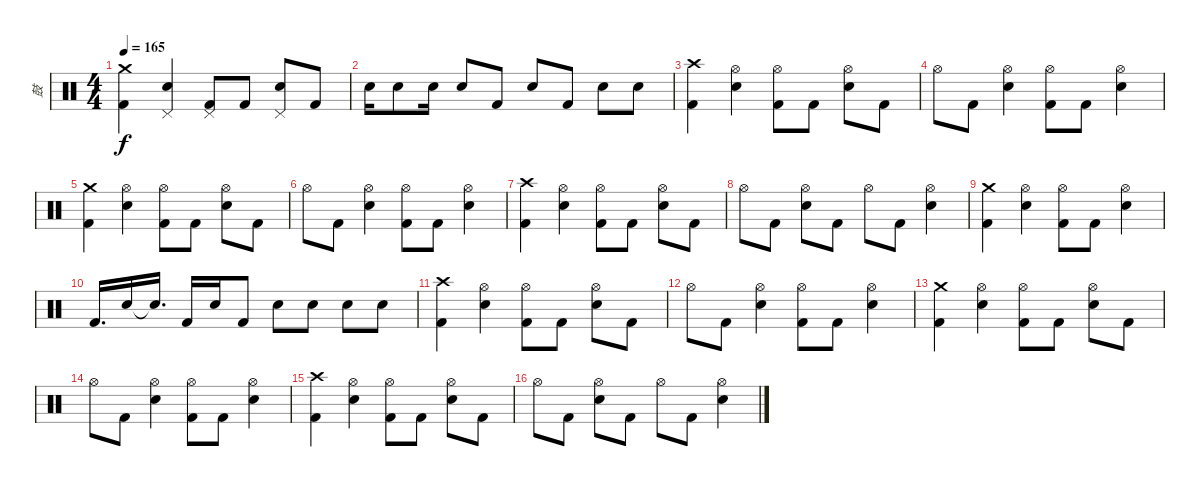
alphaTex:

\track ("鼓" "鼓") {instrument percussion}
\staff {score}
\articulation defaults
\ts (4 4)
\tempo 165
\clef neutral
\ks c
("Crash medium (hit)" "Kick (hit) 2").4{dy f} ("Pedal Hi-Hat (hit)" "Snare (hit) 2").4 ("Pedal Hi-Hat (hit)" "Kick (hit) 2").8 "Kick (hit) 2".8 ("Pedal Hi-Hat (hit)" "Snare (hit) 2").8 "Kick (hit) 2".8 |
"Snare (hit) 2".16 "Snare (hit) 2".8 "Snare (hit) 2".16 "Snare (hit) 2".8 "Kick (hit) 2".8 "Snare (hit) 2".8 "Kick (hit) 2".8 "Snare (hit) 2".8 "Snare (hit) 2".8 |
("Crash high (hit)" "Kick (hit) 2").4 ("Hi-Hat (open)" "Snare (hit) 2").4 ("Hi-Hat (open)" "Kick (hit) 2").8 "Kick (hit) 2".8 ("Hi-Hat (open)" "Snare (hit) 2").8 "Kick (hit) 2".8 |
"Hi-Hat (open)".8 "Kick (hit) 2".8 ("Hi-Hat (open)" "Snare (hit) 2").4 ("Hi-Hat (open)" "Kick (hit) 2").8 "Kick (hit) 2".8 ("Hi-Hat (open)" "Snare (hit) 2").4 |
("Crash medium (hit)" "Kick (hit) 2").4 ("Hi-Hat (open)" "Snare (hit) 2").4 ("Hi-Hat (open)" "Kick (hit) 2").8 "Kick (hit) 2".8 ("Hi-Hat (open)" "Snare (hit) 2").8 "Kick (hit) 2".8 |
"Hi-Hat (open)".8 "Kick (hit) 2".8 ("Hi-Hat (open)" "Snare (hit) 2").4 ("Hi-Hat (open)" "Kick (hit) 2").8 "Kick (hit) 2".8 ("Hi-Hat (open)" "Snare (hit) 2").4 |
("Crash high (hit)" "Kick (hit) 2").4 ("Hi-Hat (open)" "Snare (hit) 2").4 ("Hi-Hat (open)" "Kick (hit) 2").8 "Kick (hit) 2".8 ("Hi-Hat (open)" "Snare (hit) 2").8 "Kick (hit) 2".8 |
"Hi-Hat (open)".8 "Kick (hit) 2".8 ("Hi-Hat (open)" "Snare (hit) 2").8 "Kick (hit) 2".8 "Hi-Hat (open)".8 "Kick (hit) 2".8 ("Hi-Hat (open)" "Snare (hit) 2").4 |
("Crash medium (hit)" "Kick (hit) 2").4 ("Hi-Hat (open)" "Snare (hit) 2").4 ("Hi-Hat (open)" "Kick (hit) 2").8 "Kick (hit) 2".8 ("Hi-Hat (open)" "Snare (hit) 2").4 |
"Kick (hit) 2".16{d} "Snare (hit) 2".16 "Snare (hit) 2"{t}.16{d} "Kick (hit) 2".16 "Snare (hit) 2".16 "Kick (hit) 2".8 "Snare (hit) 2".8 "Snare (hit) 2".8 "Snare (hit) 2".8 "Snare (hit) 2".8 |
("Crash high (hit)" "Kick (hit) 2").4 ("Hi-Hat (open)" "Snare (hit) 2").4 ("Hi-Hat (open)" "Kick (hit) 2").8 "Kick (hit) 2".8 ("Hi-Hat (open)" "Snare (hit) 2").8 "Kick (hit) 2".8 |
"Hi-Hat (open)".8 "Kick (hit) 2".8 ("Hi-Hat (open)" "Snare (hit) 2").4 ("Hi-Hat (open)" "Kick (hit) 2").8 "Kick (hit) 2".8 ("Hi-Hat (open)" "Snare (hit) 2").4 |
("Crash medium (hit)" "Kick (hit) 2").4 ("Hi-Hat (open)" "Snare (hit) 2").4 ("Hi-Hat (open)" "Kick (hit) 2").8 "Kick (hit) 2".8 ("Hi-Hat (open)" "Snare (hit) 2").8 "Kick (hit) 2".8 |
"Hi-Hat (open)".8 "Kick (hit) 2".8 ("Hi-Hat (open)" "Snare (hit) 2").4 ("Hi-Hat (open)" "Kick (hit) 2").8 "Kick (hit) 2".8 ("Hi-Hat (open)" "Snare (hit) 2").4 |
("Crash high (hit)" "Kick (hit) 2").4 ("Hi-Hat (open)" "Snare (hit) 2").4 ("Hi-Hat (open)" "Kick (hit) 2").8 "Kick (hit) 2".8 ("Hi-Hat (open)" "Snare (hit) 2").8 "Kick (hit) 2".8 |
"Hi-Hat (open)".8 "Kick (hit) 2".8 ("Hi-Hat (open)" "Snare (hit) 2").8 "Kick (hit) 2".8 "Hi-Hat (open)".8 "Kick (hit) 2".8 ("Hi-Hat (open)" "Snare (hit) 2").4
